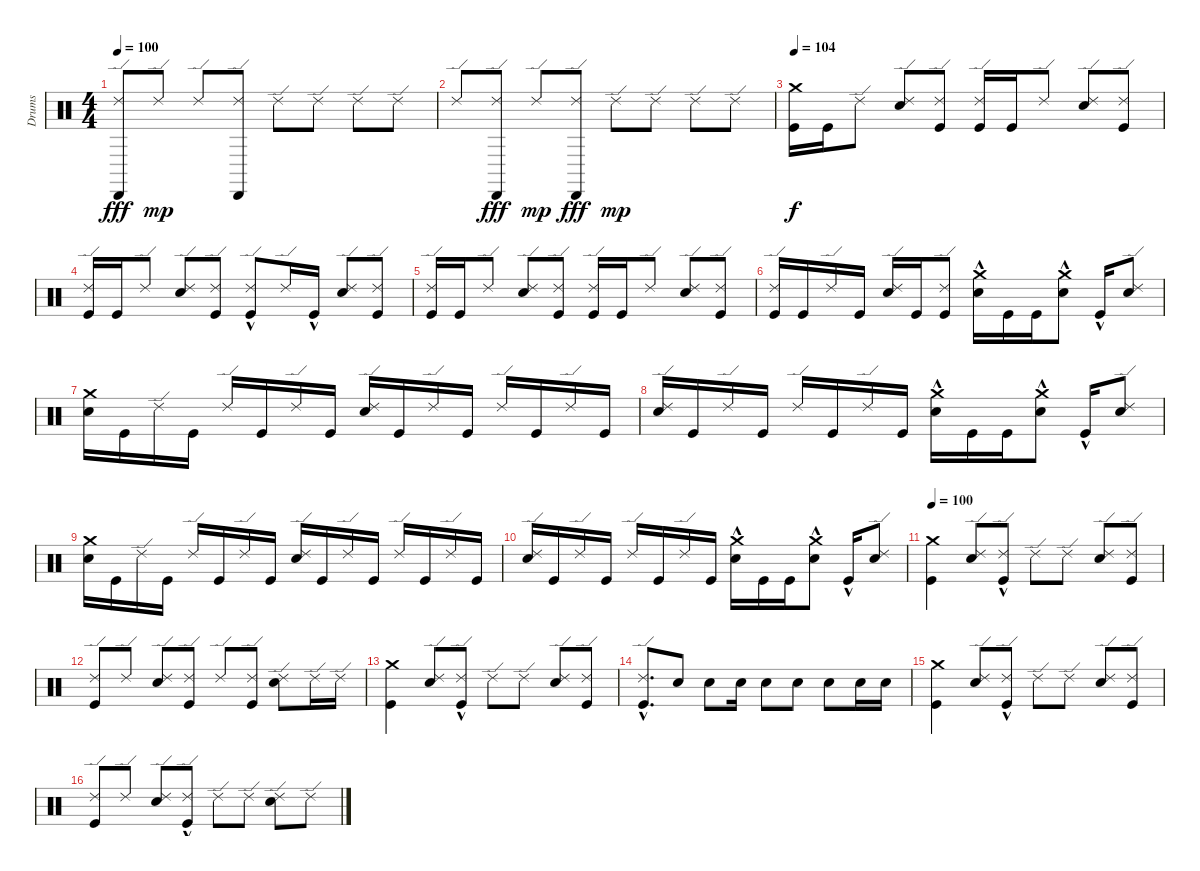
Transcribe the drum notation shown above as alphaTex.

\track ("Drums" "Drums") {instrument percussion}
\staff {score}
\articulation defaults
\ts (4 4)
\tempo 100
\clef neutral
\ks c
("Ride (edge) 2" "Cabasa (hit)").8{dy fff} "Ride (edge) 2".8{dy mp} "Ride (edge) 2".8 ("Cabasa (hit)" "Ride (edge) 2").8 "Ride (edge) 2".8 "Ride (edge) 2".8 "Ride (edge) 2".8 "Ride (edge) 2".8 |
"Ride (edge) 2".8 ("Ride (edge) 2" "Cabasa (hit)").8{dy fff} "Ride (edge) 2".8{dy mp} ("Ride (edge) 2" "Cabasa (hit)").8{dy fff} "Ride (edge) 2".8{dy mp} "Ride (edge) 2".8 "Ride (edge) 2".8 "Ride (edge) 2".8 |
\tempo 104
("Kick (hit)" "Crash medium (hit)").16{dy f} "Kick (hit)".16 "Ride (edge) 2".8 ("Electric Snare (hit)" "Ride (edge) 2").8 ("Kick (hit)" "Ride (edge) 2").8 ("Ride (edge) 2" "Kick (hit)").16 "Kick (hit)".16 "Ride (edge) 2".8 ("Electric Snare (hit)" "Ride (edge) 2").8 ("Kick (hit)" "Ride (edge) 2").8 |
("Kick (hit)" "Ride (edge) 2").16 "Kick (hit)".16 "Ride (edge) 2".8 ("Electric Snare (hit)" "Ride (edge) 2").8 ("Kick (hit)" "Ride (edge) 2").8 ("Kick (hit)"{hac} "Ride (edge) 2").8 "Ride (edge) 2".16 "Kick (hit)"{hac}.16 ("Electric Snare (hit)" "Ride (edge) 2").8 ("Kick (hit)" "Ride (edge) 2").8 |
("Kick (hit)" "Ride (edge) 2").16 "Kick (hit)".16 "Ride (edge) 2".8 ("Electric Snare (hit)" "Ride (edge) 2").8 ("Kick (hit)" "Ride (edge) 2").8 ("Kick (hit)" "Ride (edge) 2").16 "Kick (hit)".16 "Ride (edge) 2".8 ("Electric Snare (hit)" "Ride (edge) 2").8 ("Kick (hit)" "Ride (edge) 2").8 |
("Kick (hit)" "Ride (edge) 2").16 "Kick (hit)".16 "Ride (edge) 2".16 "Kick (hit)".16 ("Electric Snare (hit)" "Ride (edge) 2").16 "Kick (hit)".16 ("Kick (hit)" "Ride (edge) 2").8 ("Electric Snare (hit)"{hac} "Crash medium (hit)"{hac}).16 "Kick (hit)".16 "Kick (hit)".16 ("Electric Snare (hit)"{hac} "Crash medium (hit)"{hac}).8 "Kick (hit)"{hac}.16 ("Electric Snare (hit)" "Ride (edge) 2").8 |
("Electric Snare (hit)" "Crash medium (hit)").16 "Kick (hit)".16 "Ride (edge) 2".16 "Kick (hit)".16 "Ride (edge) 2".16 "Kick (hit)".16 "Ride (edge) 2".16 "Kick (hit)".16 ("Electric Snare (hit)" "Ride (edge) 2").16 "Kick (hit)".16 "Ride (edge) 2".16 "Kick (hit)".16 "Ride (edge) 2".16 "Kick (hit)".16 "Ride (edge) 2".16 "Kick (hit)".16 |
("Electric Snare (hit)" "Ride (edge) 2").16 "Kick (hit)".16 "Ride (edge) 2".16 "Kick (hit)".16 "Ride (edge) 2".16 "Kick (hit)".16 "Ride (edge) 2".16 "Kick (hit)".16 ("Electric Snare (hit)"{hac} "Crash medium (hit)"{hac}).16 "Kick (hit)".16 "Kick (hit)".16 ("Electric Snare (hit)"{hac} "Crash medium (hit)"{hac}).8 "Kick (hit)"{hac}.16 ("Electric Snare (hit)" "Ride (edge) 2").8 |
("Electric Snare (hit)" "Crash medium (hit)").16 "Kick (hit)".16 "Ride (edge) 2".16 "Kick (hit)".16 "Ride (edge) 2".16 "Kick (hit)".16 "Ride (edge) 2".16 "Kick (hit)".16 ("Electric Snare (hit)" "Ride (edge) 2").16 "Kick (hit)".16 "Ride (edge) 2".16 "Kick (hit)".16 "Ride (edge) 2".16 "Kick (hit)".16 "Ride (edge) 2".16 "Kick (hit)".16 |
("Electric Snare (hit)" "Ride (edge) 2").16 "Kick (hit)".16 "Ride (edge) 2".16 "Kick (hit)".16 "Ride (edge) 2".16 "Kick (hit)".16 "Ride (edge) 2".16 "Kick (hit)".16 ("Electric Snare (hit)"{hac} "Crash medium (hit)"{hac}).16 "Kick (hit)".16 "Kick (hit)".16 ("Electric Snare (hit)"{hac} "Crash medium (hit)"{hac}).8 "Kick (hit)"{hac}.16 ("Electric Snare (hit)" "Ride (edge) 2").8 |
\tempo 100
("Kick (hit)" "Crash medium (hit)").4 ("Electric Snare (hit)" "Ride (edge) 2").8 ("Kick (hit)"{hac} "Ride (edge) 2").8 "Ride (edge) 2".8 "Ride (edge) 2".8 ("Electric Snare (hit)" "Ride (edge) 2").8 ("Kick (hit)" "Ride (edge) 2").8 |
("Kick (hit)" "Ride (edge) 2").8 "Ride (edge) 2".8 ("Electric Snare (hit)" "Ride (edge) 2").8 ("Kick (hit)" "Ride (edge) 2").8 "Ride (edge) 2".8 ("Kick (hit)" "Ride (edge) 2").8 ("Electric Snare (hit)" "Ride (edge) 2").8 "Ride (edge) 2".16 "Ride (edge) 2".16 |
("Kick (hit)" "Crash medium (hit)").4 ("Electric Snare (hit)" "Ride (edge) 2").8 ("Kick (hit)"{hac} "Ride (edge) 2").8 "Ride (edge) 2".8 "Ride (edge) 2".8 ("Electric Snare (hit)" "Ride (edge) 2").8 ("Kick (hit)" "Ride (edge) 2").8 |
("Kick (hit)"{hac} "Ride (edge) 2"{hac}).8{d} "Snare (hit) 2".8 "Snare (hit) 2".8 "Snare (hit) 2".16 "Snare (hit) 2".8 "Snare (hit) 2".8 "Snare (hit) 2".8 "Snare (hit) 2".16 "Snare (hit) 2".16 |
("Kick (hit)" "Crash medium (hit)").4 ("Electric Snare (hit)" "Ride (edge) 2").8 ("Kick (hit)"{hac} "Ride (edge) 2").8 "Ride (edge) 2".8 "Ride (edge) 2".8 ("Electric Snare (hit)" "Ride (edge) 2").8 ("Kick (hit)" "Ride (edge) 2").8 |
("Kick (hit)" "Ride (edge) 2").8 "Ride (edge) 2".8 ("Electric Snare (hit)" "Ride (edge) 2").8 ("Kick (hit)"{hac} "Ride (edge) 2").8 "Ride (edge) 2".8 "Ride (edge) 2".8 ("Electric Snare (hit)" "Ride (edge) 2").8 "Ride (edge) 2".8
